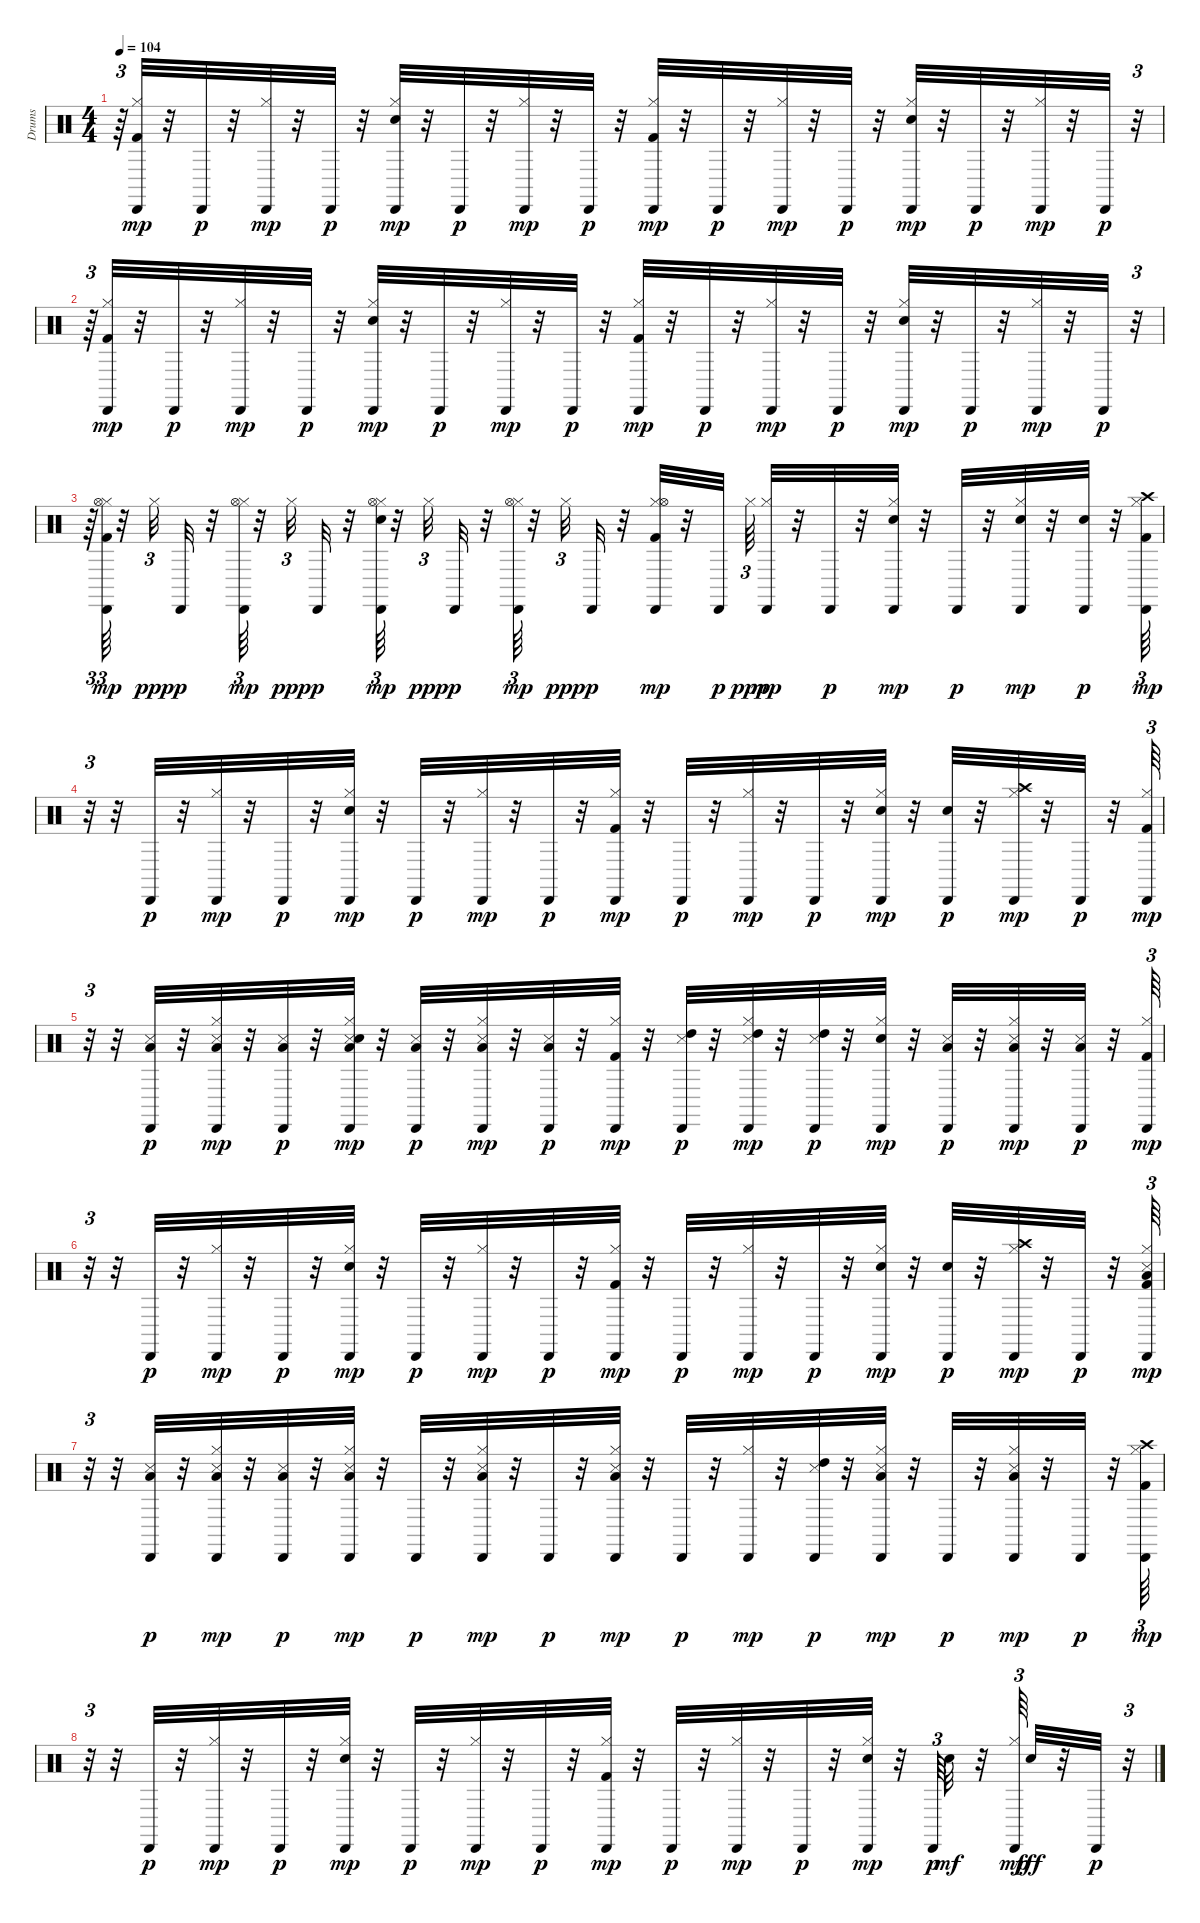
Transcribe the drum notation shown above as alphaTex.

\track ("Drums               " "Drums     ") {instrument percussion}
\staff {score}
\articulation defaults
\ts (4 4)
\tempo 104
\clef neutral
\ks c
r.64{tu (3 2) dy p} ("Kick (hit) 2" "Hi-Hat (closed)" "Cabasa (hit)").32{dy mp} r.32 "Cabasa (hit)".32{dy p} r.32 ("Hi-Hat (closed)" "Cabasa (hit)").32{dy mp} r.32 "Cabasa (hit)".32{dy p} r.32 ("Snare (hit) 2" "Hi-Hat (closed)" "Cabasa (hit)").32{dy mp} r.32 "Cabasa (hit)".32{dy p} r.32 ("Hi-Hat (closed)" "Cabasa (hit)").32{dy mp} r.32 "Cabasa (hit)".32{dy p} r.32 ("Kick (hit) 2" "Hi-Hat (closed)" "Cabasa (hit)").32{dy mp} r.32 "Cabasa (hit)".32{dy p} r.32 ("Hi-Hat (closed)" "Cabasa (hit)").32{dy mp} r.32 "Cabasa (hit)".32{dy p} r.32 ("Snare (hit) 2" "Hi-Hat (closed)" "Cabasa (hit)").32{dy mp} r.32 "Cabasa (hit)".32{dy p} r.32 ("Hi-Hat (closed)" "Cabasa (hit)").32{dy mp} r.32 "Cabasa (hit)".32{dy p} r.32{tu (3 2)} |
r.64{tu (3 2)} ("Kick (hit) 2" "Hi-Hat (closed)" "Cabasa (hit)").32{dy mp} r.32 "Cabasa (hit)".32{dy p} r.32 ("Hi-Hat (closed)" "Cabasa (hit)").32{dy mp} r.32 "Cabasa (hit)".32{dy p} r.32 ("Snare (hit) 2" "Hi-Hat (closed)" "Cabasa (hit)").32{dy mp} r.32 "Cabasa (hit)".32{dy p} r.32 ("Hi-Hat (closed)" "Cabasa (hit)").32{dy mp} r.32 "Cabasa (hit)".32{dy p} r.32 ("Kick (hit) 2" "Hi-Hat (closed)" "Cabasa (hit)").32{dy mp} r.32 "Cabasa (hit)".32{dy p} r.32 ("Hi-Hat (closed)" "Cabasa (hit)").32{dy mp} r.32 "Cabasa (hit)".32{dy p} r.32 ("Snare (hit) 2" "Hi-Hat (closed)" "Cabasa (hit)").32{dy mp} r.32 "Cabasa (hit)".32{dy p} r.32 ("Hi-Hat (closed)" "Cabasa (hit)").32{dy mp} r.32 "Cabasa (hit)".32{dy p} r.32{tu (3 2)} |
r.64{tu (3 2)} ("Kick (hit) 2" "Hi-Hat (closed)" "Hi-Hat (open)" "Cabasa (hit)").64{tu (3 2) dy mp} r.32 "Hi-Hat (closed)".32{tu (3 2) dy ppp} "Cabasa (hit)".32{dy p} r.32 ("Hi-Hat (closed)" "Hi-Hat (open)" "Cabasa (hit)").64{tu (3 2) dy mp} r.32 "Hi-Hat (closed)".32{tu (3 2) dy ppp} "Cabasa (hit)".32{dy p} r.32 ("Snare (hit) 2" "Hi-Hat (closed)" "Hi-Hat (open)" "Cabasa (hit)").64{tu (3 2) dy mp} r.32 "Hi-Hat (closed)".32{tu (3 2) dy ppp} "Cabasa (hit)".32{dy p} r.32 ("Hi-Hat (closed)" "Hi-Hat (open)" "Cabasa (hit)").64{tu (3 2) dy mp} r.32 "Hi-Hat (closed)".32{tu (3 2) dy ppp} "Cabasa (hit)".32{dy p} r.32 ("Kick (hit) 2" "Hi-Hat (closed)" "Hi-Hat (open)" "Cabasa (hit)").32{dy mp} r.32 "Cabasa (hit)".32{dy p} "Hi-Hat (closed)".64{tu (3 2) dy ppp} ("Hi-Hat (closed)" "Cabasa (hit)").32{dy mp} r.32 "Cabasa (hit)".32{dy p} r.32 ("Snare (hit) 2" "Hi-Hat (closed)" "Cabasa (hit)").32{dy mp} r.32 "Cabasa (hit)".32{dy p} r.32 ("Snare (hit) 2" "Hi-Hat (closed)" "Cabasa (hit)").32{dy mp} r.32 ("Snare (hit) 2" "Cabasa (hit)").32{dy p} r.32 ("Kick (hit) 2" "Hi-Hat (closed)" "Crash high (hit)" "Cabasa (hit)").64{tu (3 2) dy mp} |
r.32{tu (3 2)} r.32 "Cabasa (hit)".32{dy p} r.32 ("Hi-Hat (closed)" "Cabasa (hit)").32{dy mp} r.32 "Cabasa (hit)".32{dy p} r.32 ("Snare (hit) 2" "Hi-Hat (closed)" "Cabasa (hit)").32{dy mp} r.32 "Cabasa (hit)".32{dy p} r.32 ("Hi-Hat (closed)" "Cabasa (hit)").32{dy mp} r.32 "Cabasa (hit)".32{dy p} r.32 ("Kick (hit) 2" "Hi-Hat (closed)" "Cabasa (hit)").32{dy mp} r.32 "Cabasa (hit)".32{dy p} r.32 ("Hi-Hat (closed)" "Cabasa (hit)").32{dy mp} r.32 "Cabasa (hit)".32{dy p} r.32 ("Snare (hit) 2" "Hi-Hat (closed)" "Cabasa (hit)").32{dy mp} r.32 ("Snare (hit) 2" "Cabasa (hit)").32{dy p} r.32 ("Hi-Hat (closed)" "Crash high (hit)" "Cabasa (hit)").32{dy mp} r.32 "Cabasa (hit)".32{dy p} r.32 ("Kick (hit) 2" "Hi-Hat (closed)" "Cabasa (hit)").64{tu (3 2) dy mp} |
r.32{tu (3 2)} r.32 ("Snare (side stick) 3" "Low Floor Tom (hit)" "Cabasa (hit)").32{dy p} r.32 ("Snare (side stick) 3" "Low Floor Tom (hit)" "Hi-Hat (closed)" "Cabasa (hit)").32{dy mp} r.32 ("Snare (side stick) 3" "Low Floor Tom (hit)" "Cabasa (hit)").32{dy p} r.32 ("Snare (side stick) 3" "Snare (hit) 2" "Low Floor Tom (hit)" "Hi-Hat (closed)" "Cabasa (hit)").32{dy mp} r.32 ("Snare (side stick) 3" "Low Floor Tom (hit)" "Cabasa (hit)").32{dy p} r.32 ("Snare (side stick) 3" "Low Floor Tom (hit)" "Hi-Hat (closed)" "Cabasa (hit)").32{dy mp} r.32 ("Snare (side stick) 3" "Low Floor Tom (hit)" "Cabasa (hit)").32{dy p} r.32 ("Kick (hit) 2" "Hi-Hat (closed)" "Cabasa (hit)").32{dy mp} r.32 ("Snare (side stick) 3" "High Tom (hit)" "Cabasa (hit)").32{dy p} r.32 ("Snare (side stick) 3" "Hi-Hat (closed)" "High Tom (hit)" "Cabasa (hit)").32{dy mp} r.32 ("Snare (side stick) 3" "High Tom (hit)" "Cabasa (hit)").32{dy p} r.32 ("Snare (hit) 2" "Hi-Hat (closed)" "Cabasa (hit)").32{dy mp} r.32 ("Snare (side stick) 3" "Low Tom (hit)" "Cabasa (hit)").32{dy p} r.32 ("Snare (side stick) 3" "Hi-Hat (closed)" "Low Tom (hit)" "Cabasa (hit)").32{dy mp} r.32 ("Snare (side stick) 3" "Low Tom (hit)" "Cabasa (hit)").32{dy p} r.32 ("Kick (hit) 2" "Hi-Hat (closed)" "Cabasa (hit)").64{tu (3 2) dy mp} |
r.32{tu (3 2)} r.32 "Cabasa (hit)".32{dy p} r.32 ("Hi-Hat (closed)" "Cabasa (hit)").32{dy mp} r.32 "Cabasa (hit)".32{dy p} r.32 ("Snare (hit) 2" "Hi-Hat (closed)" "Cabasa (hit)").32{dy mp} r.32 "Cabasa (hit)".32{dy p} r.32 ("Hi-Hat (closed)" "Cabasa (hit)").32{dy mp} r.32 "Cabasa (hit)".32{dy p} r.32 ("Kick (hit) 2" "Hi-Hat (closed)" "Cabasa (hit)").32{dy mp} r.32 "Cabasa (hit)".32{dy p} r.32 ("Hi-Hat (closed)" "Cabasa (hit)").32{dy mp} r.32 "Cabasa (hit)".32{dy p} r.32 ("Snare (hit) 2" "Hi-Hat (closed)" "Cabasa (hit)").32{dy mp} r.32 ("Snare (hit) 2" "Cabasa (hit)").32{dy p} r.32 ("Hi-Hat (closed)" "Crash high (hit)" "Cabasa (hit)").32{dy mp} r.32 "Cabasa (hit)".32{dy p} r.32 ("Kick (hit) 2" "Snare (side stick) 3" "Hi-Hat (closed)" "Low Tom (hit)" "Cabasa (hit)").64{tu (3 2) dy mp} |
r.32{tu (3 2)} r.32 ("Snare (side stick) 3" "Low Tom (hit)" "Cabasa (hit)").32{dy p} r.32 ("Snare (side stick) 3" "Hi-Hat (closed)" "Low Tom (hit)" "Cabasa (hit)").32{dy mp} r.32 ("Snare (side stick) 3" "Low Tom (hit)" "Cabasa (hit)").32{dy p} r.32 ("Snare (side stick) 3" "Hi-Hat (closed)" "Low Tom (hit)" "Cabasa (hit)").32{dy mp} r.32 "Cabasa (hit)".32{dy p} r.32 ("Snare (side stick) 3" "Hi-Hat (closed)" "Low Tom (hit)" "Cabasa (hit)").32{dy mp} r.32 "Cabasa (hit)".32{dy p} r.32 ("Snare (side stick) 3" "Low Floor Tom (hit)" "Hi-Hat (closed)" "Cabasa (hit)").32{dy mp} r.32 "Cabasa (hit)".32{dy p} r.32 ("Hi-Hat (closed)" "Cabasa (hit)").32{dy mp} r.32 ("Snare (side stick) 3" "High Tom (hit)" "Cabasa (hit)").32{dy p} r.32 ("Snare (side stick) 3" "Hi-Hat (closed)" "Low Tom (hit)" "Cabasa (hit)").32{dy mp} r.32 "Cabasa (hit)".32{dy p} r.32 ("Snare (side stick) 3" "Low Floor Tom (hit)" "Hi-Hat (closed)" "Cabasa (hit)").32{dy mp} r.32 "Cabasa (hit)".32{dy p} r.32 ("Kick (hit) 2" "Hi-Hat (closed)" "Crash high (hit)" "Cabasa (hit)").64{tu (3 2) dy mp} |
r.32{tu (3 2)} r.32 "Cabasa (hit)".32{dy p} r.32 ("Hi-Hat (closed)" "Cabasa (hit)").32{dy mp} r.32 "Cabasa (hit)".32{dy p} r.32 ("Snare (hit) 2" "Hi-Hat (closed)" "Cabasa (hit)").32{dy mp} r.32 "Cabasa (hit)".32{dy p} r.32 ("Hi-Hat (closed)" "Cabasa (hit)").32{dy mp} r.32 "Cabasa (hit)".32{dy p} r.32 ("Kick (hit) 2" "Hi-Hat (closed)" "Cabasa (hit)").32{dy mp} r.32 "Cabasa (hit)".32{dy p} r.32 ("Hi-Hat (closed)" "Cabasa (hit)").32{dy mp} r.32 "Cabasa (hit)".32{dy p} r.32 ("Snare (hit) 2" "Hi-Hat (closed)" "Cabasa (hit)").32{dy mp} r.32 "Cabasa (hit)".64{tu (3 2) dy p} "Snare (hit) 2".32{dy mf} r.32 ("Hi-Hat (closed)" "Cabasa (hit)").64{tu (3 2) dy mp} "Snare (hit) 2".32{dy fff} r.32 "Cabasa (hit)".32{dy p} r.32{tu (3 2)}
